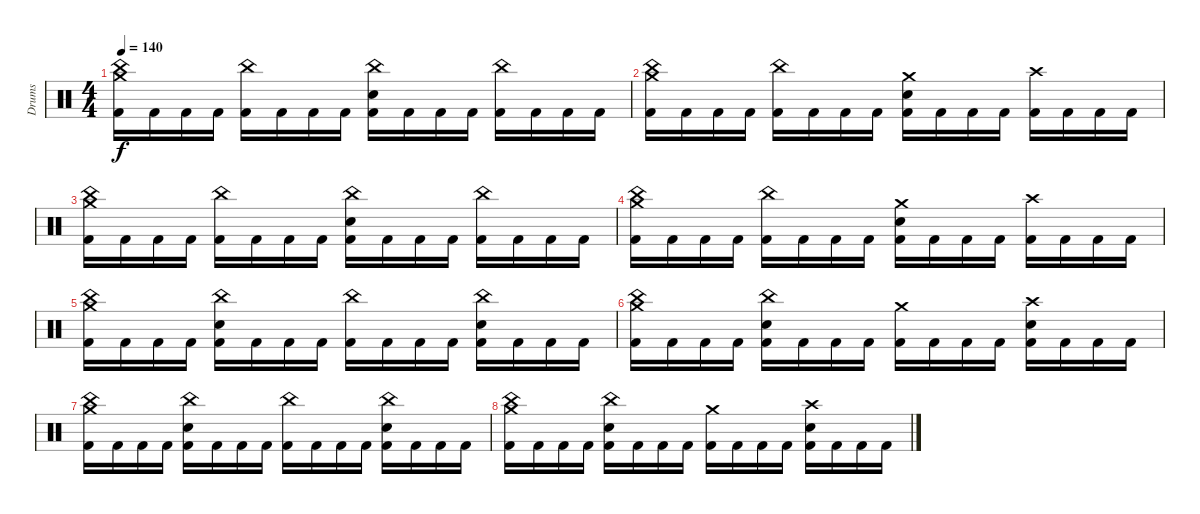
\track ("Drums" "Drums") {instrument percussion}
\staff {score}
\articulation defaults
\ts (4 4)
\tempo 140
\clef neutral
\ks c
("China (hit)" "Crash medium (hit)" "Kick (hit) 2").16{dy f} "Kick (hit) 2".16 "Kick (hit) 2".16 "Kick (hit) 2".16 ("China (hit)" "Kick (hit) 2").16 "Kick (hit) 2".16 "Kick (hit) 2".16 "Kick (hit) 2".16 ("China (hit)" "Electric Snare (hit)" "Kick (hit) 2").16 "Kick (hit) 2".16 "Kick (hit) 2".16 "Kick (hit) 2".16 ("China (hit)" "Kick (hit) 2").16 "Kick (hit) 2".16 "Kick (hit) 2".16 "Kick (hit) 2".16 |
("China (hit)" "Crash medium (hit)" "Kick (hit) 2").16 "Kick (hit) 2".16 "Kick (hit) 2".16 "Kick (hit) 2".16 ("China (hit)" "Kick (hit) 2").16 "Kick (hit) 2".16 "Kick (hit) 2".16 "Kick (hit) 2".16 ("Crash medium (hit)" "Electric Snare (hit)" "Kick (hit) 2").16 "Kick (hit) 2".16 "Kick (hit) 2".16 "Kick (hit) 2".16 ("Crash high (hit)" "Kick (hit) 2").16 "Kick (hit) 2".16 "Kick (hit) 2".16 "Kick (hit) 2".16 |
("China (hit)" "Crash medium (hit)" "Kick (hit) 2").16 "Kick (hit) 2".16 "Kick (hit) 2".16 "Kick (hit) 2".16 ("China (hit)" "Kick (hit) 2").16 "Kick (hit) 2".16 "Kick (hit) 2".16 "Kick (hit) 2".16 ("China (hit)" "Electric Snare (hit)" "Kick (hit) 2").16 "Kick (hit) 2".16 "Kick (hit) 2".16 "Kick (hit) 2".16 ("China (hit)" "Kick (hit) 2").16 "Kick (hit) 2".16 "Kick (hit) 2".16 "Kick (hit) 2".16 |
("China (hit)" "Crash medium (hit)" "Kick (hit) 2").16 "Kick (hit) 2".16 "Kick (hit) 2".16 "Kick (hit) 2".16 ("China (hit)" "Kick (hit) 2").16 "Kick (hit) 2".16 "Kick (hit) 2".16 "Kick (hit) 2".16 ("Crash medium (hit)" "Electric Snare (hit)" "Kick (hit) 2").16 "Kick (hit) 2".16 "Kick (hit) 2".16 "Kick (hit) 2".16 ("Crash high (hit)" "Kick (hit) 2").16 "Kick (hit) 2".16 "Kick (hit) 2".16 "Kick (hit) 2".16 |
("China (hit)" "Crash medium (hit)" "Kick (hit) 2").16 "Kick (hit) 2".16 "Kick (hit) 2".16 "Kick (hit) 2".16 ("China (hit)" "Electric Snare (hit)" "Kick (hit) 2").16 "Kick (hit) 2".16 "Kick (hit) 2".16 "Kick (hit) 2".16 ("China (hit)" "Kick (hit) 2").16 "Kick (hit) 2".16 "Kick (hit) 2".16 "Kick (hit) 2".16 ("China (hit)" "Electric Snare (hit)" "Kick (hit) 2").16 "Kick (hit) 2".16 "Kick (hit) 2".16 "Kick (hit) 2".16 |
("China (hit)" "Crash medium (hit)" "Kick (hit) 2").16 "Kick (hit) 2".16 "Kick (hit) 2".16 "Kick (hit) 2".16 ("China (hit)" "Electric Snare (hit)" "Kick (hit) 2").16 "Kick (hit) 2".16 "Kick (hit) 2".16 "Kick (hit) 2".16 ("Crash medium (hit)" "Kick (hit) 2").16 "Kick (hit) 2".16 "Kick (hit) 2".16 "Kick (hit) 2".16 ("Crash high (hit)" "Electric Snare (hit)" "Kick (hit) 2").16 "Kick (hit) 2".16 "Kick (hit) 2".16 "Kick (hit) 2".16 |
("China (hit)" "Crash medium (hit)" "Kick (hit) 2").16 "Kick (hit) 2".16 "Kick (hit) 2".16 "Kick (hit) 2".16 ("China (hit)" "Electric Snare (hit)" "Kick (hit) 2").16 "Kick (hit) 2".16 "Kick (hit) 2".16 "Kick (hit) 2".16 ("China (hit)" "Kick (hit) 2").16 "Kick (hit) 2".16 "Kick (hit) 2".16 "Kick (hit) 2".16 ("China (hit)" "Electric Snare (hit)" "Kick (hit) 2").16 "Kick (hit) 2".16 "Kick (hit) 2".16 "Kick (hit) 2".16 |
("China (hit)" "Crash medium (hit)" "Kick (hit) 2").16 "Kick (hit) 2".16 "Kick (hit) 2".16 "Kick (hit) 2".16 ("China (hit)" "Electric Snare (hit)" "Kick (hit) 2").16 "Kick (hit) 2".16 "Kick (hit) 2".16 "Kick (hit) 2".16 ("Crash medium (hit)" "Kick (hit) 2").16 "Kick (hit) 2".16 "Kick (hit) 2".16 "Kick (hit) 2".16 ("Crash high (hit)" "Electric Snare (hit)" "Kick (hit) 2").16 "Kick (hit) 2".16 "Kick (hit) 2".16 "Kick (hit) 2".16
